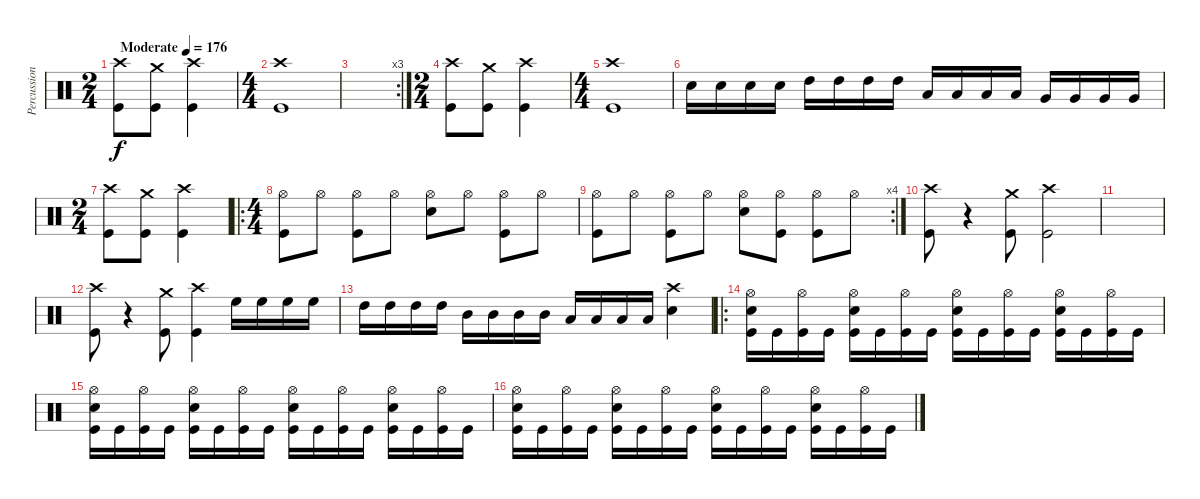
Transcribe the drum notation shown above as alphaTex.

\track ("Percussions" "Percussion") {instrument percussion}
\staff {score}
\articulation defaults
\ts (2 4)
\tempo (176 "Moderate")
\clef neutral
\ks c
("Crash high (hit)" "Kick (hit)").8{dy f} ("Crash medium (hit)" "Kick (hit)").8 ("Crash high (hit)" "Kick (hit)").4 |
\ts (4 4)
("Crash high (hit)" "Kick (hit)").1 |
\rc 3
|
\ts (2 4)
("Crash high (hit)" "Kick (hit)").8 ("Crash medium (hit)" "Kick (hit)").8 ("Crash high (hit)" "Kick (hit)").4 |
\ts (4 4)
("Crash high (hit)" "Kick (hit)").1 |
"Snare (hit) 2".16 "Snare (hit) 2".16 "Snare (hit) 2".16 "Snare (hit) 2".16 "High Tom (hit)".16 "High Tom (hit)".16 "High Tom (hit)".16 "High Tom (hit)".16 "Low Tom (hit)".16 "Low Tom (hit)".16 "Low Tom (hit)".16 "Low Tom (hit)".16 "Very Low Tom (hit)".16 "Very Low Tom (hit)".16 "Very Low Tom (hit)".16 "Very Low Tom (hit)".16 |
\ts (2 4)
("Crash high (hit)" "Kick (hit)").8 ("Crash medium (hit)" "Kick (hit)").8 ("Crash high (hit)" "Kick (hit)").4 |
\ro
\ts (4 4)
("Hi-Hat (open)" "Kick (hit)").8 "Hi-Hat (open)".8 ("Hi-Hat (open)" "Kick (hit)").8 "Hi-Hat (open)".8 ("Hi-Hat (open)" "Snare (hit) 2").8 "Hi-Hat (open)".8 ("Hi-Hat (open)" "Kick (hit)").8 "Hi-Hat (open)".8 |
\rc 4
("Hi-Hat (open)" "Kick (hit)").8 "Hi-Hat (open)".8 ("Hi-Hat (open)" "Kick (hit)").8 "Hi-Hat (open)".8 ("Hi-Hat (open)" "Snare (hit) 2").8 ("Hi-Hat (open)" "Kick (hit)").8 ("Hi-Hat (open)" "Kick (hit)").8 "Hi-Hat (open)".8 |
("Crash high (hit)" "Kick (hit)").8 r.4 ("Crash medium (hit)" "Kick (hit)").8 ("Crash high (hit)" "Kick (hit)").2 |
|
("Crash high (hit)" "Kick (hit)").8 r.4 ("Crash medium (hit)" "Kick (hit)").8 ("Crash high (hit)" "Kick (hit)").4 "High Floor Tom (hit)".16 "High Floor Tom (hit)".16 "High Floor Tom (hit)".16 "High Floor Tom (hit)".16 |
"High Tom (hit)".16 "High Tom (hit)".16 "High Tom (hit)".16 "High Tom (hit)".16 "Mid Tom (hit)".16 "Mid Tom (hit)".16 "Mid Tom (hit)".16 "Mid Tom (hit)".16 "Low Tom (hit)".16 "Low Tom (hit)".16 "Low Tom (hit)".16 "Low Tom (hit)".16 ("Crash high (hit)" "Snare (hit) 2").4 |
\ro
("Hi-Hat (open)" "Snare (hit) 2" "Kick (hit)").16 "Kick (hit)".16 ("Hi-Hat (open)" "Kick (hit)").16 "Kick (hit)".16 ("Hi-Hat (open)" "Snare (hit) 2" "Kick (hit)").16 "Kick (hit)".16 ("Hi-Hat (open)" "Kick (hit)").16 "Kick (hit)".16 ("Hi-Hat (open)" "Snare (hit) 2" "Kick (hit)").16 "Kick (hit)".16 ("Hi-Hat (open)" "Kick (hit)").16 "Kick (hit)".16 ("Hi-Hat (open)" "Snare (hit) 2" "Kick (hit)").16 "Kick (hit)".16 ("Hi-Hat (open)" "Kick (hit)").16 "Kick (hit)".16 |
("Hi-Hat (open)" "Snare (hit) 2" "Kick (hit)").16 "Kick (hit)".16 ("Hi-Hat (open)" "Kick (hit)").16 "Kick (hit)".16 ("Hi-Hat (open)" "Snare (hit) 2" "Kick (hit)").16 "Kick (hit)".16 ("Hi-Hat (open)" "Kick (hit)").16 "Kick (hit)".16 ("Hi-Hat (open)" "Snare (hit) 2" "Kick (hit)").16 "Kick (hit)".16 ("Hi-Hat (open)" "Kick (hit)").16 "Kick (hit)".16 ("Hi-Hat (open)" "Snare (hit) 2" "Kick (hit)").16 "Kick (hit)".16 ("Hi-Hat (open)" "Kick (hit)").16 "Kick (hit)".16 |
("Hi-Hat (open)" "Snare (hit) 2" "Kick (hit)").16 "Kick (hit)".16 ("Hi-Hat (open)" "Kick (hit)").16 "Kick (hit)".16 ("Hi-Hat (open)" "Snare (hit) 2" "Kick (hit)").16 "Kick (hit)".16 ("Hi-Hat (open)" "Kick (hit)").16 "Kick (hit)".16 ("Hi-Hat (open)" "Snare (hit) 2" "Kick (hit)").16 "Kick (hit)".16 ("Hi-Hat (open)" "Kick (hit)").16 "Kick (hit)".16 ("Hi-Hat (open)" "Snare (hit) 2" "Kick (hit)").16 "Kick (hit)".16 ("Hi-Hat (open)" "Kick (hit)").16 "Kick (hit)".16
